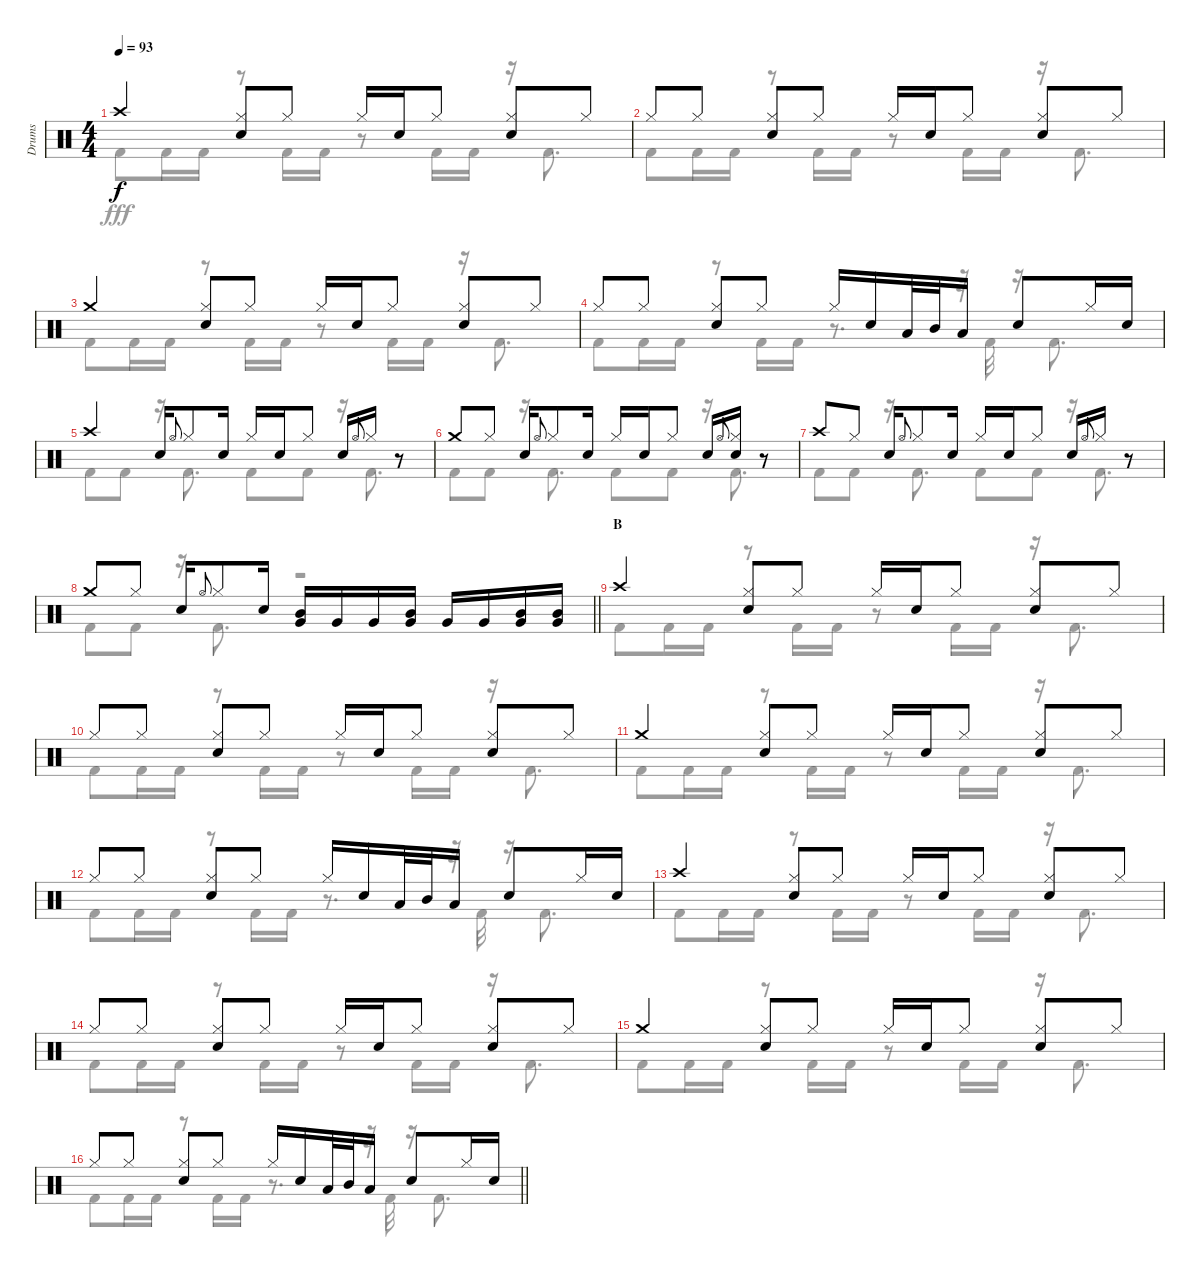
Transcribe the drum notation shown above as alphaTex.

\track ("Drums" "Drums") {instrument percussion}
\staff {score}
\articulation defaults
\voice
\ts (4 4)
\tempo 93
\clef neutral
\ks c "Crash high (hit)".4{dy f}
("Hi-Hat (closed)" "Snare (hit) 2").8 "Hi-Hat (closed)".8 "Hi-Hat (closed)".16 "Snare (hit) 2".16 "Hi-Hat (closed)".8 ("Hi-Hat (closed)" "Snare (hit) 2").8 "Hi-Hat (closed)".8 |
"Hi-Hat (closed)".8 "Hi-Hat (closed)".8 ("Hi-Hat (closed)" "Snare (hit) 2").8 "Hi-Hat (closed)".8 "Hi-Hat (closed)".16 "Snare (hit) 2".16 "Hi-Hat (closed)".8 ("Hi-Hat (closed)" "Snare (hit) 2").8 "Hi-Hat (closed)".8 |
"Crash medium (hit)".4 ("Hi-Hat (closed)" "Snare (hit) 2").8 "Hi-Hat (closed)".8 "Hi-Hat (closed)".16 "Snare (hit) 2".16 "Hi-Hat (closed)".8 ("Hi-Hat (closed)" "Snare (hit) 2").8 "Hi-Hat (closed)".8 |
"Hi-Hat (closed)".8 "Hi-Hat (closed)".8 ("Hi-Hat (closed)" "Snare (hit) 2").8 "Hi-Hat (closed)".8 "Hi-Hat (closed)".16 "Snare (hit) 2".16 "Low Tom (hit)".32 "Mid Tom (hit)".32 "Low Tom (hit)".16 "Snare (hit) 2".8 "Hi-Hat (closed)".16 "Snare (hit) 2".16 |
"Crash high (hit)".4 "Snare (hit) 2".16 "Hi-Hat (open)".8{gr onbeat} "Hi-Hat (closed)".8 "Snare (hit) 2".16 "Hi-Hat (closed)".16 "Snare (hit) 2".16 "Hi-Hat (closed)".8 "Snare (hit) 2".16 "Hi-Hat (open)".8{gr onbeat} "Hi-Hat (closed)".16 r.8 |
"Crash medium (hit)".8 "Hi-Hat (closed)".8 "Snare (hit) 2".16 "Hi-Hat (open)".8{gr onbeat} "Hi-Hat (closed)".8 "Snare (hit) 2".16 "Hi-Hat (closed)".16 "Snare (hit) 2".16 "Hi-Hat (closed)".8 "Snare (hit) 2".16 "Hi-Hat (open)".8{gr onbeat} ("Hi-Hat (closed)" "Snare (hit) 2").16 r.8 |
"Crash high (hit)".8 "Hi-Hat (closed)".8 "Snare (hit) 2".16 "Hi-Hat (open)".8{gr onbeat} "Hi-Hat (closed)".8 "Snare (hit) 2".16 "Hi-Hat (closed)".16 "Snare (hit) 2".16 "Hi-Hat (closed)".8 "Snare (hit) 2".16 "Hi-Hat (open)".8{gr onbeat} "Hi-Hat (closed)".16 r.8 |
\barLineRight lightlight "Crash medium (hit)".8 "Hi-Hat (closed)".8 "Snare (hit) 2".16 "Hi-Hat (open)".8{gr onbeat} "Hi-Hat (closed)".8 "Snare (hit) 2".16
("Mid Tom (hit)" "Very Low Tom (hit)").16 "Very Low Tom (hit)".16 "Very Low Tom (hit)".16 ("Mid Tom (hit)" "Very Low Tom (hit)").16 "Very Low Tom (hit)".16 "Very Low Tom (hit)".16 ("Mid Tom (hit)" "Very Low Tom (hit)").16 ("Mid Tom (hit)" "Very Low Tom (hit)").16 |
\section ("" "B")
"Crash high (hit)".4 ("Hi-Hat (closed)" "Snare (hit) 2").8 "Hi-Hat (closed)".8 "Hi-Hat (closed)".16 "Snare (hit) 2".16 "Hi-Hat (closed)".8 ("Hi-Hat (closed)" "Snare (hit) 2").8 "Hi-Hat (closed)".8 |
"Hi-Hat (closed)".8 "Hi-Hat (closed)".8 ("Hi-Hat (closed)" "Snare (hit) 2").8 "Hi-Hat (closed)".8 "Hi-Hat (closed)".16 "Snare (hit) 2".16 "Hi-Hat (closed)".8 ("Hi-Hat (closed)" "Snare (hit) 2").8 "Hi-Hat (closed)".8 |
"Crash medium (hit)".4 ("Hi-Hat (closed)" "Snare (hit) 2").8 "Hi-Hat (closed)".8 "Hi-Hat (closed)".16 "Snare (hit) 2".16 "Hi-Hat (closed)".8 ("Hi-Hat (closed)" "Snare (hit) 2").8 "Hi-Hat (closed)".8 |
"Hi-Hat (closed)".8 "Hi-Hat (closed)".8 ("Hi-Hat (closed)" "Snare (hit) 2").8 "Hi-Hat (closed)".8 "Hi-Hat (closed)".16 "Snare (hit) 2".16 "Low Tom (hit)".32 "Mid Tom (hit)".32 "Low Tom (hit)".16 "Snare (hit) 2".8 "Hi-Hat (closed)".16 "Snare (hit) 2".16 |
"Crash high (hit)".4 ("Hi-Hat (closed)" "Snare (hit) 2").8 "Hi-Hat (closed)".8 "Hi-Hat (closed)".16 "Snare (hit) 2".16 "Hi-Hat (closed)".8 ("Hi-Hat (closed)" "Snare (hit) 2").8 "Hi-Hat (closed)".8 |
"Hi-Hat (closed)".8 "Hi-Hat (closed)".8 ("Hi-Hat (closed)" "Snare (hit) 2").8 "Hi-Hat (closed)".8 "Hi-Hat (closed)".16 "Snare (hit) 2".16 "Hi-Hat (closed)".8 ("Hi-Hat (closed)" "Snare (hit) 2").8 "Hi-Hat (closed)".8 |
"Crash medium (hit)".4 ("Hi-Hat (closed)" "Snare (hit) 2").8 "Hi-Hat (closed)".8 "Hi-Hat (closed)".16 "Snare (hit) 2".16 "Hi-Hat (closed)".8 ("Hi-Hat (closed)" "Snare (hit) 2").8 "Hi-Hat (closed)".8 |
\barLineRight lightlight "Hi-Hat (closed)".8 "Hi-Hat (closed)".8
("Hi-Hat (closed)" "Snare (hit) 2").8 "Hi-Hat (closed)".8 "Hi-Hat (closed)".16 "Snare (hit) 2".16 "Low Tom (hit)".32 "Mid Tom (hit)".32 "Low Tom (hit)".16 "Snare (hit) 2".8 "Hi-Hat (closed)".16 "Snare (hit) 2".16
\voice
\clef neutral
\ottava regular
\simile none
\ks c "Kick (hit) 2".8{dy fff} "Kick (hit) 2".16 "Kick (hit) 2".16
r.8 "Kick (hit) 2".16 "Kick (hit) 2".16 r.8 "Kick (hit) 2".16 "Kick (hit) 2".16 r.16 "Kick (hit) 2".8{d} |
"Kick (hit) 2".8 "Kick (hit) 2".16 "Kick (hit) 2".16 r.8 "Kick (hit) 2".16 "Kick (hit) 2".16 r.8 "Kick (hit) 2".16 "Kick (hit) 2".16 r.16 "Kick (hit) 2".8{d} |
"Kick (hit) 2".8 "Kick (hit) 2".16 "Kick (hit) 2".16 r.8 "Kick (hit) 2".16 "Kick (hit) 2".16 r.8 "Kick (hit) 2".16 "Kick (hit) 2".16 r.16 "Kick (hit) 2".8{d} |
"Kick (hit) 2".8 "Kick (hit) 2".16 "Kick (hit) 2".16 r.8 "Kick (hit) 2".16 "Kick (hit) 2".16 r.8{d} r.32 "Kick (hit) 2".32 r.16 "Kick (hit) 2".8{d} |
"Kick (hit) 2".8 "Kick (hit) 2".8 r.16 "Kick (hit) 2".8{d} "Kick (hit) 2".8 "Kick (hit) 2".8 r.16 "Kick (hit) 2".8{d} |
"Kick (hit) 2".8 "Kick (hit) 2".8 r.16 "Kick (hit) 2".8{d} "Kick (hit) 2".8 "Kick (hit) 2".8 r.16 "Kick (hit) 2".8{d} |
"Kick (hit) 2".8 "Kick (hit) 2".8 r.16 "Kick (hit) 2".8{d} "Kick (hit) 2".8 "Kick (hit) 2".8 r.16 "Kick (hit) 2".8{d} |
\barLineRight lightlight "Kick (hit) 2".8 "Kick (hit) 2".8
r.16 "Kick (hit) 2".8{d} r.2 |
"Kick (hit) 2".8 "Kick (hit) 2".16 "Kick (hit) 2".16 r.8 "Kick (hit) 2".16 "Kick (hit) 2".16 r.8 "Kick (hit) 2".16 "Kick (hit) 2".16 r.16 "Kick (hit) 2".8{d} |
"Kick (hit) 2".8 "Kick (hit) 2".16 "Kick (hit) 2".16 r.8 "Kick (hit) 2".16 "Kick (hit) 2".16 r.8 "Kick (hit) 2".16 "Kick (hit) 2".16 r.16 "Kick (hit) 2".8{d} |
"Kick (hit) 2".8 "Kick (hit) 2".16 "Kick (hit) 2".16 r.8 "Kick (hit) 2".16 "Kick (hit) 2".16 r.8 "Kick (hit) 2".16 "Kick (hit) 2".16 r.16 "Kick (hit) 2".8{d} |
"Kick (hit) 2".8 "Kick (hit) 2".16 "Kick (hit) 2".16 r.8 "Kick (hit) 2".16 "Kick (hit) 2".16 r.8{d} r.32 "Kick (hit) 2".32 r.16 "Kick (hit) 2".8{d} |
"Kick (hit) 2".8 "Kick (hit) 2".16 "Kick (hit) 2".16 r.8 "Kick (hit) 2".16 "Kick (hit) 2".16 r.8 "Kick (hit) 2".16 "Kick (hit) 2".16 r.16 "Kick (hit) 2".8{d} |
"Kick (hit) 2".8 "Kick (hit) 2".16 "Kick (hit) 2".16 r.8 "Kick (hit) 2".16 "Kick (hit) 2".16 r.8 "Kick (hit) 2".16 "Kick (hit) 2".16 r.16 "Kick (hit) 2".8{d} |
"Kick (hit) 2".8 "Kick (hit) 2".16 "Kick (hit) 2".16 r.8 "Kick (hit) 2".16 "Kick (hit) 2".16 r.8 "Kick (hit) 2".16 "Kick (hit) 2".16 r.16 "Kick (hit) 2".8{d} |
\barLineRight lightlight "Kick (hit) 2".8 "Kick (hit) 2".16 "Kick (hit) 2".16
r.8 "Kick (hit) 2".16 "Kick (hit) 2".16 r.8{d} r.32 "Kick (hit) 2".32 r.16 "Kick (hit) 2".8{d}
